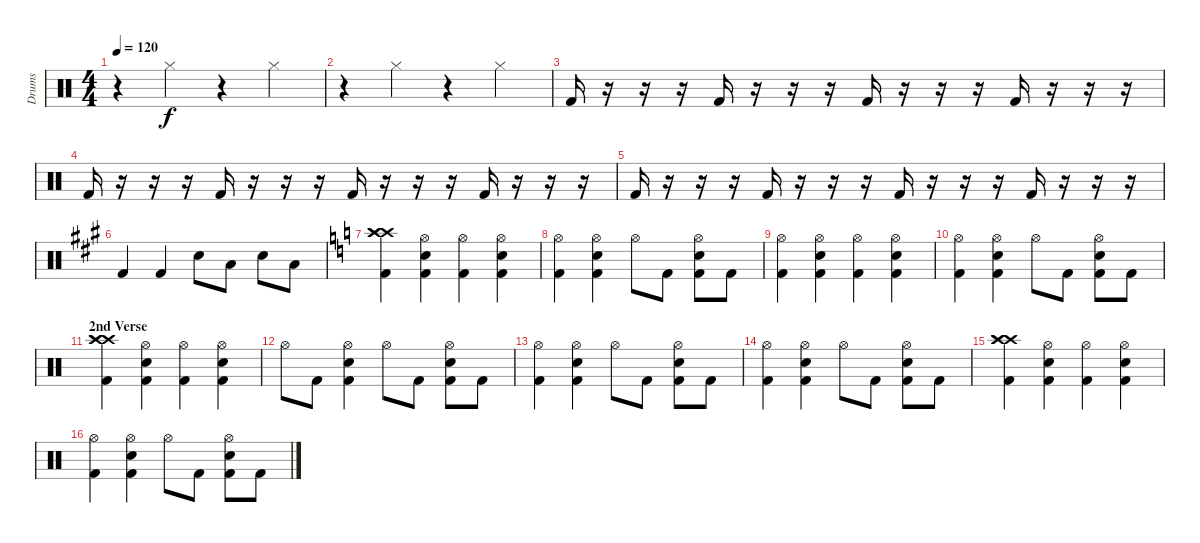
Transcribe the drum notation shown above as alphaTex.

\track ("Drums" "Drums") {instrument percussion}
\staff {score}
\articulation defaults
\ts (4 4)
\tempo 120
\clef neutral
\ks c
r.4{dy f} "Hi-Hat (closed)".4 r.4 "Hi-Hat (closed)".4 |
r.4 "Hi-Hat (closed)".4 r.4 "Hi-Hat (closed)".4 |
"Kick (hit) 2".16 r.16 r.16 r.16 "Kick (hit) 2".16 r.16 r.16 r.16 "Kick (hit) 2".16 r.16 r.16 r.16 "Kick (hit) 2".16 r.16 r.16 r.16 |
"Kick (hit) 2".16 r.16 r.16 r.16 "Kick (hit) 2".16 r.16 r.16 r.16 "Kick (hit) 2".16 r.16 r.16 r.16 "Kick (hit) 2".16 r.16 r.16 r.16 |
"Kick (hit) 2".16 r.16 r.16 r.16 "Kick (hit) 2".16 r.16 r.16 r.16 "Kick (hit) 2".16 r.16 r.16 r.16 "Kick (hit) 2".16 r.16 r.16 r.16 |
\ks a "Kick (hit) 2".4 "Kick (hit) 2".4 "Electric Snare (hit)".8 "Low Tom (hit)".8 "Electric Snare (hit)".8 "Low Tom (hit)".8
|
\ks c
("Crash high (hit)" "Crash high (hit)" "Crash high (hit)" "Kick (hit) 2").4 ("Hi-Hat (open)" "Electric Snare (hit)" "Kick (hit) 2").4 ("Hi-Hat (open)" "Kick (hit) 2").4 ("Hi-Hat (open)" "Electric Snare (hit)" "Kick (hit) 2").4 |
("Hi-Hat (open)" "Kick (hit) 2").4 ("Hi-Hat (open)" "Electric Snare (hit)" "Kick (hit) 2").4 "Hi-Hat (open)".8 "Kick (hit) 2".8 ("Hi-Hat (open)" "Electric Snare (hit)" "Kick (hit) 2").8 "Kick (hit) 2".8 |
("Hi-Hat (open)" "Kick (hit) 2").4 ("Hi-Hat (open)" "Electric Snare (hit)" "Kick (hit) 2").4 ("Hi-Hat (open)" "Kick (hit) 2").4 ("Hi-Hat (open)" "Electric Snare (hit)" "Kick (hit) 2").4 |
("Hi-Hat (open)" "Kick (hit) 2").4 ("Hi-Hat (open)" "Electric Snare (hit)" "Kick (hit) 2").4 "Hi-Hat (open)".8 "Kick (hit) 2".8 ("Hi-Hat (open)" "Electric Snare (hit)" "Kick (hit) 2").8 "Kick (hit) 2".8 |
\section ("" "2nd Verse")
("Crash high (hit)" "Crash high (hit)" "Crash high (hit)" "Kick (hit) 2").4 ("Hi-Hat (open)" "Electric Snare (hit)" "Kick (hit) 2").4 ("Hi-Hat (open)" "Kick (hit) 2").4 ("Hi-Hat (open)" "Electric Snare (hit)" "Kick (hit) 2").4 |
"Hi-Hat (open)".8 "Kick (hit) 2".8 ("Hi-Hat (open)" "Electric Snare (hit)" "Kick (hit) 2").4 "Hi-Hat (open)".8 "Kick (hit) 2".8 ("Hi-Hat (open)" "Electric Snare (hit)" "Kick (hit) 2").8 "Kick (hit) 2".8 |
("Hi-Hat (open)" "Kick (hit) 2").4 ("Hi-Hat (open)" "Electric Snare (hit)" "Kick (hit) 2").4 "Hi-Hat (open)".8 "Kick (hit) 2".8 ("Hi-Hat (open)" "Electric Snare (hit)" "Kick (hit) 2").8 "Kick (hit) 2".8 |
("Hi-Hat (open)" "Kick (hit) 2").4 ("Hi-Hat (open)" "Electric Snare (hit)" "Kick (hit) 2").4 "Hi-Hat (open)".8 "Kick (hit) 2".8 ("Hi-Hat (open)" "Electric Snare (hit)" "Kick (hit) 2").8 "Kick (hit) 2".8 |
("Crash high (hit)" "Crash high (hit)" "Crash high (hit)" "Kick (hit) 2").4 ("Hi-Hat (open)" "Electric Snare (hit)" "Kick (hit) 2").4 ("Hi-Hat (open)" "Kick (hit) 2").4 ("Hi-Hat (open)" "Electric Snare (hit)" "Kick (hit) 2").4 |
("Hi-Hat (open)" "Kick (hit) 2").4 ("Hi-Hat (open)" "Electric Snare (hit)" "Kick (hit) 2").4 "Hi-Hat (open)".8 "Kick (hit) 2".8 ("Hi-Hat (open)" "Electric Snare (hit)" "Kick (hit) 2").8 "Kick (hit) 2".8
